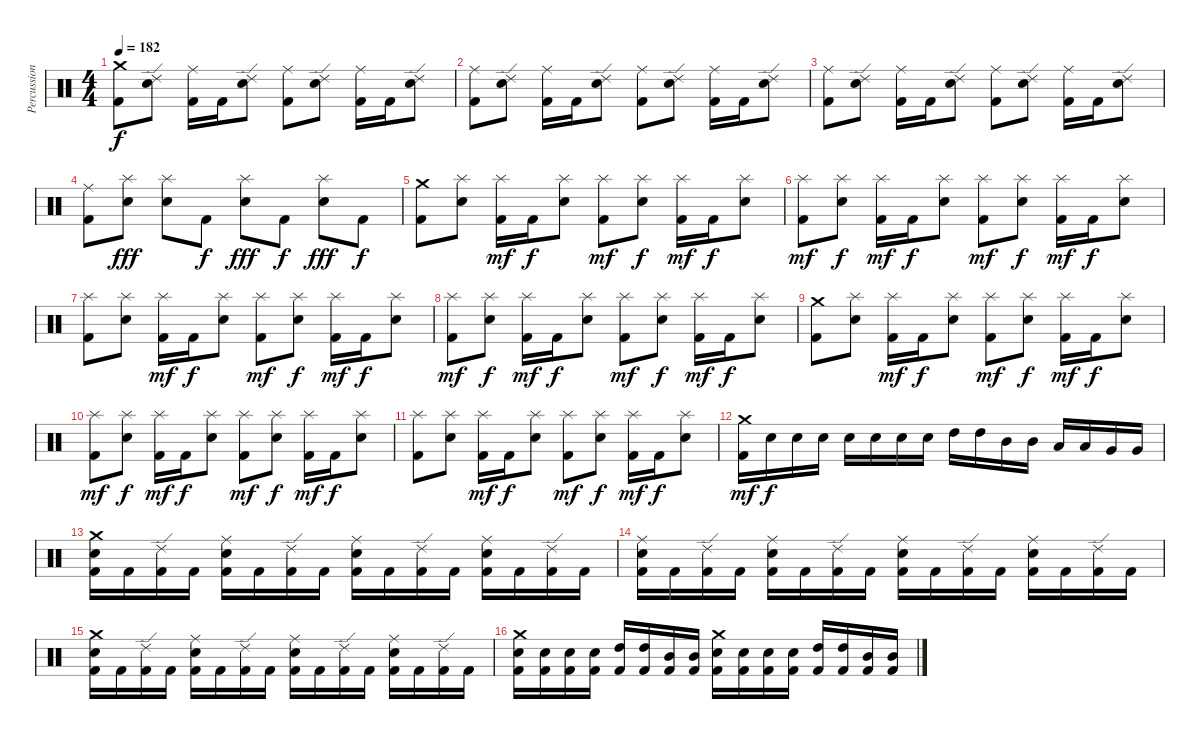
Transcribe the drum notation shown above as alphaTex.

\track ("Percussion" "Percussion") {instrument percussion}
\staff {score}
\articulation defaults
\ts (4 4)
\tempo 182
\clef neutral
\ks c
("Crash medium (hit)" "Kick (hit) 2").8{dy f} ("Ride (edge) 2" "Electric Snare (hit)").8 ("Ride (middle)" "Kick (hit) 2").16 "Kick (hit) 2".16 ("Ride (edge) 2" "Electric Snare (hit)").8 ("Ride (middle)" "Kick (hit) 2").8 ("Ride (edge) 2" "Electric Snare (hit)").8 ("Ride (middle)" "Kick (hit) 2").16 "Kick (hit) 2".16 ("Ride (edge) 2" "Electric Snare (hit)").8 |
("Ride (middle)" "Kick (hit) 2").8 ("Ride (edge) 2" "Electric Snare (hit)").8 ("Ride (middle)" "Kick (hit) 2").16 "Kick (hit) 2".16 ("Ride (edge) 2" "Electric Snare (hit)").8 ("Ride (middle)" "Kick (hit) 2").8 ("Ride (edge) 2" "Electric Snare (hit)").8 ("Ride (middle)" "Kick (hit) 2").16 "Kick (hit) 2".16 ("Ride (edge) 2" "Electric Snare (hit)").8 |
("Ride (middle)" "Kick (hit) 2").8 ("Ride (edge) 2" "Electric Snare (hit)").8 ("Ride (middle)" "Kick (hit) 2").16 "Kick (hit) 2".16 ("Ride (edge) 2" "Electric Snare (hit)").8 ("Ride (middle)" "Kick (hit) 2").8 ("Ride (edge) 2" "Electric Snare (hit)").8 ("Ride (middle)" "Kick (hit) 2").16 "Kick (hit) 2".16 ("Ride (edge) 2" "Electric Snare (hit)").8 |
("Ride (middle)" "Kick (hit) 2").8 ("Splash (hit)" "Electric Snare (hit)").8{dy fff} ("Splash (hit)" "Electric Snare (hit)").8 "Kick (hit) 2".8{dy f} ("Splash (hit)" "Electric Snare (hit)").8{dy fff} "Kick (hit) 2".8{dy f} ("Splash (hit)" "Electric Snare (hit)").8{dy fff} "Kick (hit) 2".8{dy f} |
("Crash medium (hit)" "Kick (hit) 2").8 ("Splash (hit)" "Electric Snare (hit)").8 ("Splash (hit)" "Kick (hit) 2").16{dy mf} "Kick (hit) 2".16{dy f} ("Splash (hit)" "Electric Snare (hit)").8 ("Splash (hit)" "Kick (hit) 2").8{dy mf} ("Splash (hit)" "Electric Snare (hit)").8{dy f} ("Splash (hit)" "Kick (hit) 2").16{dy mf} "Kick (hit) 2".16{dy f} ("Splash (hit)" "Electric Snare (hit)").8 |
("Splash (hit)" "Kick (hit) 2").8{dy mf} ("Splash (hit)" "Electric Snare (hit)").8{dy f} ("Splash (hit)" "Kick (hit) 2").16{dy mf} "Kick (hit) 2".16{dy f} ("Splash (hit)" "Electric Snare (hit)").8 ("Splash (hit)" "Kick (hit) 2").8{dy mf} ("Splash (hit)" "Electric Snare (hit)").8{dy f} ("Splash (hit)" "Kick (hit) 2").16{dy mf} "Kick (hit) 2".16{dy f} ("Splash (hit)" "Electric Snare (hit)").8 |
("Splash (hit)" "Kick (hit) 2").8 ("Splash (hit)" "Electric Snare (hit)").8 ("Splash (hit)" "Kick (hit) 2").16{dy mf} "Kick (hit) 2".16{dy f} ("Splash (hit)" "Electric Snare (hit)").8 ("Splash (hit)" "Kick (hit) 2").8{dy mf} ("Splash (hit)" "Electric Snare (hit)").8{dy f} ("Splash (hit)" "Kick (hit) 2").16{dy mf} "Kick (hit) 2".16{dy f} ("Splash (hit)" "Electric Snare (hit)").8 |
("Splash (hit)" "Kick (hit) 2").8{dy mf} ("Splash (hit)" "Electric Snare (hit)").8{dy f} ("Splash (hit)" "Kick (hit) 2").16{dy mf} "Kick (hit) 2".16{dy f} ("Splash (hit)" "Electric Snare (hit)").8 ("Splash (hit)" "Kick (hit) 2").8{dy mf} ("Splash (hit)" "Electric Snare (hit)").8{dy f} ("Splash (hit)" "Kick (hit) 2").16{dy mf} "Kick (hit) 2".16{dy f} ("Splash (hit)" "Electric Snare (hit)").8 |
("Crash medium (hit)" "Kick (hit) 2").8 ("Splash (hit)" "Electric Snare (hit)").8 ("Splash (hit)" "Kick (hit) 2").16{dy mf} "Kick (hit) 2".16{dy f} ("Splash (hit)" "Electric Snare (hit)").8 ("Splash (hit)" "Kick (hit) 2").8{dy mf} ("Splash (hit)" "Electric Snare (hit)").8{dy f} ("Splash (hit)" "Kick (hit) 2").16{dy mf} "Kick (hit) 2".16{dy f} ("Splash (hit)" "Electric Snare (hit)").8 |
("Splash (hit)" "Kick (hit) 2").8{dy mf} ("Splash (hit)" "Electric Snare (hit)").8{dy f} ("Splash (hit)" "Kick (hit) 2").16{dy mf} "Kick (hit) 2".16{dy f} ("Splash (hit)" "Electric Snare (hit)").8 ("Splash (hit)" "Kick (hit) 2").8{dy mf} ("Splash (hit)" "Electric Snare (hit)").8{dy f} ("Splash (hit)" "Kick (hit) 2").16{dy mf} "Kick (hit) 2".16{dy f} ("Splash (hit)" "Electric Snare (hit)").8 |
("Splash (hit)" "Kick (hit) 2").8 ("Splash (hit)" "Electric Snare (hit)").8 ("Splash (hit)" "Kick (hit) 2").16{dy mf} "Kick (hit) 2".16{dy f} ("Splash (hit)" "Electric Snare (hit)").8 ("Splash (hit)" "Kick (hit) 2").8{dy mf} ("Splash (hit)" "Electric Snare (hit)").8{dy f} ("Splash (hit)" "Kick (hit) 2").16{dy mf} "Kick (hit) 2".16{dy f} ("Splash (hit)" "Electric Snare (hit)").8 |
("Crash medium (hit)" "Kick (hit) 2").16{dy mf} "Electric Snare (hit)".16{dy f} "Electric Snare (hit)".16 "Electric Snare (hit)".16 "Electric Snare (hit)".16 "Electric Snare (hit)".16 "Electric Snare (hit)".16 "Electric Snare (hit)".16 "High Tom (hit)".16 "High Tom (hit)".16 "Mid Tom (hit)".16 "Mid Tom (hit)".16 "Low Tom (hit)".16 "Low Tom (hit)".16 "Very Low Tom (hit)".16 "Very Low Tom (hit)".16 |
("Crash medium (hit)" "Electric Snare (hit)" "Kick (hit) 2").16 "Kick (hit) 2".16 ("Ride (edge) 2" "Kick (hit) 2").16 "Kick (hit) 2".16 ("Ride (middle)" "Electric Snare (hit)" "Kick (hit) 2").16 "Kick (hit) 2".16 ("Ride (edge) 2" "Kick (hit) 2").16 "Kick (hit) 2".16 ("Ride (middle)" "Electric Snare (hit)" "Kick (hit) 2").16 "Kick (hit) 2".16 ("Ride (edge) 2" "Kick (hit) 2").16 "Kick (hit) 2".16 ("Ride (middle)" "Electric Snare (hit)" "Kick (hit) 2").16 "Kick (hit) 2".16 ("Ride (edge) 2" "Kick (hit) 2").16 "Kick (hit) 2".16 |
("Ride (middle)" "Electric Snare (hit)" "Kick (hit) 2").16 "Kick (hit) 2".16 ("Ride (edge) 2" "Kick (hit) 2").16 "Kick (hit) 2".16 ("Ride (middle)" "Electric Snare (hit)" "Kick (hit) 2").16 "Kick (hit) 2".16 ("Ride (edge) 2" "Kick (hit) 2").16 "Kick (hit) 2".16 ("Ride (middle)" "Electric Snare (hit)" "Kick (hit) 2").16 "Kick (hit) 2".16 ("Ride (edge) 2" "Kick (hit) 2").16 "Kick (hit) 2".16 ("Ride (middle)" "Electric Snare (hit)" "Kick (hit) 2").16 "Kick (hit) 2".16 ("Ride (edge) 2" "Kick (hit) 2").16 "Kick (hit) 2".16 |
("Crash medium (hit)" "Electric Snare (hit)" "Kick (hit) 2").16 "Kick (hit) 2".16 ("Ride (edge) 2" "Kick (hit) 2").16 "Kick (hit) 2".16 ("Ride (middle)" "Electric Snare (hit)" "Kick (hit) 2").16 "Kick (hit) 2".16 ("Ride (edge) 2" "Kick (hit) 2").16 "Kick (hit) 2".16 ("Ride (middle)" "Electric Snare (hit)" "Kick (hit) 2").16 "Kick (hit) 2".16 ("Ride (edge) 2" "Kick (hit) 2").16 "Kick (hit) 2".16 ("Ride (middle)" "Electric Snare (hit)" "Kick (hit) 2").16 "Kick (hit) 2".16 ("Ride (edge) 2" "Kick (hit) 2").16 "Kick (hit) 2".16 |
("Crash medium (hit)" "Electric Snare (hit)" "Kick (hit) 2").16 ("Electric Snare (hit)" "Kick (hit) 2").16 ("Electric Snare (hit)" "Kick (hit) 2").16 ("Electric Snare (hit)" "Kick (hit) 2").16 ("High Tom (hit)" "Kick (hit) 2").16 ("High Tom (hit)" "Kick (hit) 2").16 ("Mid Tom (hit)" "Kick (hit) 2").16 ("Mid Tom (hit)" "Kick (hit) 2").16 ("Crash medium (hit)" "Electric Snare (hit)" "Kick (hit) 2").16 ("Electric Snare (hit)" "Kick (hit) 2").16 ("Electric Snare (hit)" "Kick (hit) 2").16 ("Electric Snare (hit)" "Kick (hit) 2").16 ("High Tom (hit)" "Kick (hit) 2").16 ("High Tom (hit)" "Kick (hit) 2").16 ("Mid Tom (hit)" "Kick (hit) 2").16 ("Mid Tom (hit)" "Kick (hit) 2").16
